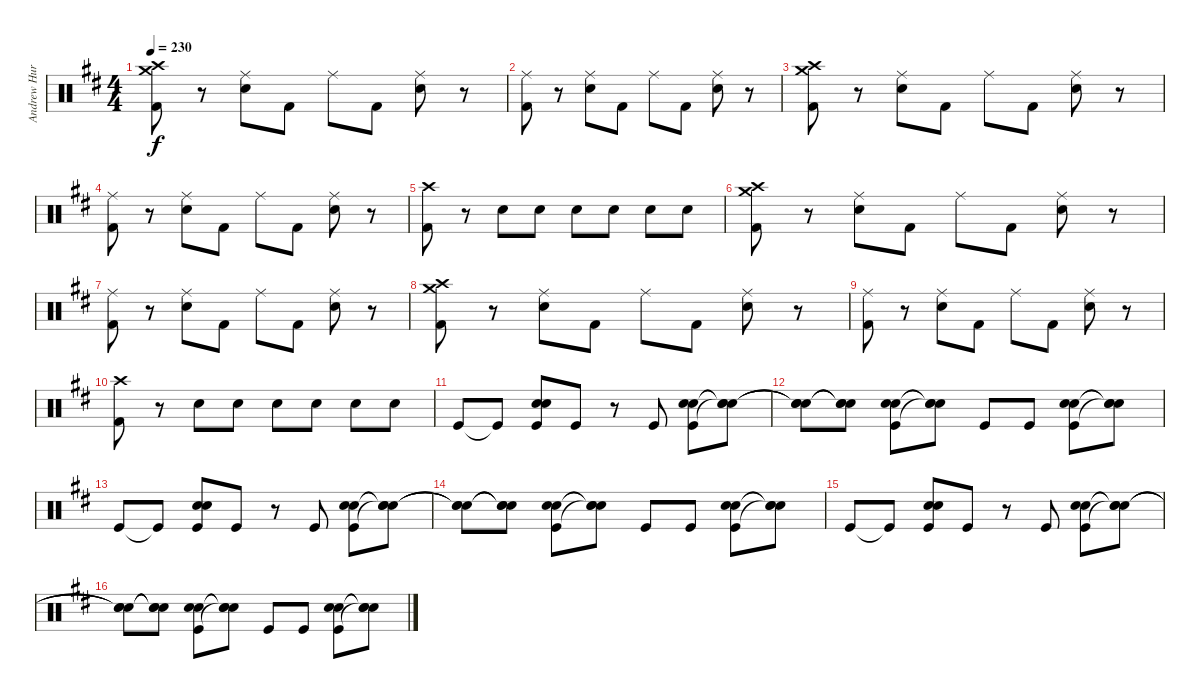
\track ("Andrew Hurley" "Andrew Hur") {instrument percussion}
\staff {score}
\articulation defaults
\ts (4 4)
\tempo 230
\clef neutral
\ks d
("Crash high (hit)" "Crash medium (hit)" "Kick (hit) 2").8{dy f} r.8 ("Ride (middle)" "Electric Snare (hit)").8 "Kick (hit) 2".8 "Ride (middle)".8 "Kick (hit) 2".8 ("Ride (middle)" "Electric Snare (hit)").8 r.8 |
("Ride (middle)" "Kick (hit) 2").8 r.8 ("Ride (middle)" "Electric Snare (hit)").8 "Kick (hit) 2".8 "Ride (middle)".8 "Kick (hit) 2".8 ("Ride (middle)" "Electric Snare (hit)").8 r.8 |
("Crash high (hit)" "Crash medium (hit)" "Kick (hit) 2").8 r.8 ("Ride (middle)" "Electric Snare (hit)").8 "Kick (hit) 2".8 "Ride (middle)".8 "Kick (hit) 2".8 ("Ride (middle)" "Electric Snare (hit)").8 r.8 |
("Ride (middle)" "Kick (hit) 2").8 r.8 ("Ride (middle)" "Electric Snare (hit)").8 "Kick (hit) 2".8 "Ride (middle)".8 "Kick (hit) 2".8 ("Ride (middle)" "Electric Snare (hit)").8 r.8 |
("Crash high (hit)" "Kick (hit) 2").8 r.8 "Electric Snare (hit)".8 "Electric Snare (hit)".8 "Electric Snare (hit)".8 "Electric Snare (hit)".8 "Electric Snare (hit)".8 "Electric Snare (hit)".8 |
("Crash high (hit)" "Crash medium (hit)" "Kick (hit) 2").8 r.8 ("Ride (middle)" "Electric Snare (hit)").8 "Kick (hit) 2".8 "Ride (middle)".8 "Kick (hit) 2".8 ("Ride (middle)" "Electric Snare (hit)").8 r.8 |
("Ride (middle)" "Kick (hit) 2").8 r.8 ("Ride (middle)" "Electric Snare (hit)").8 "Kick (hit) 2".8 "Ride (middle)".8 "Kick (hit) 2".8 ("Ride (middle)" "Electric Snare (hit)").8 r.8 |
("Crash high (hit)" "Crash medium (hit)" "Kick (hit) 2").8 r.8 ("Ride (middle)" "Electric Snare (hit)").8 "Kick (hit) 2".8 "Ride (middle)".8 "Kick (hit) 2".8 ("Ride (middle)" "Electric Snare (hit)").8 r.8 |
("Ride (middle)" "Kick (hit) 2").8 r.8 ("Ride (middle)" "Electric Snare (hit)").8 "Kick (hit) 2".8 "Ride (middle)".8 "Kick (hit) 2".8 ("Ride (middle)" "Electric Snare (hit)").8 r.8 |
("Crash high (hit)" "Kick (hit) 2").8 r.8 "Electric Snare (hit)".8 "Electric Snare (hit)".8 "Electric Snare (hit)".8 "Electric Snare (hit)".8 "Electric Snare (hit)".8 "Electric Snare (hit)".8 |
"Kick (hit)".8 "Kick (hit)"{t}.8 ("Kick (hit)" "Snare (hit) 2" "Electric Snare (hit)").8 "Kick (hit)".8 r.8 "Kick (hit)".8 ("Electric Snare (hit)" "Snare (hit) 2" "Kick (hit)").8 ("Snare (hit)"{t} "Snare (hit)"{t} "Snare (hit)"{t}).8 |
("Snare (hit)"{t} "Snare (hit)"{t} "Snare (hit)"{t}).8 ("Snare (hit)"{t} "Snare (hit)"{t} "Snare (hit)"{t}).8 ("Electric Snare (hit)" "Snare (hit) 2" "Kick (hit)").8 ("Snare (hit)"{t} "Snare (hit)"{t} "Snare (hit)"{t}).8 "Kick (hit)".8 "Kick (hit)".8 ("Electric Snare (hit)" "Snare (hit) 2" "Kick (hit)").8 ("Snare (hit)"{t} "Snare (hit)"{t} "Snare (hit)"{t}).8 |
"Kick (hit)".8 "Kick (hit)"{t}.8 ("Kick (hit)" "Snare (hit) 2" "Electric Snare (hit)").8 "Kick (hit)".8 r.8 "Kick (hit)".8 ("Electric Snare (hit)" "Snare (hit) 2" "Kick (hit)").8 ("Snare (hit)"{t} "Snare (hit)"{t} "Snare (hit)"{t}).8 |
("Snare (hit)"{t} "Snare (hit)"{t} "Snare (hit)"{t}).8 ("Snare (hit)"{t} "Snare (hit)"{t} "Snare (hit)"{t}).8 ("Electric Snare (hit)" "Snare (hit) 2" "Kick (hit)").8 ("Snare (hit)"{t} "Snare (hit)"{t} "Snare (hit)"{t}).8 "Kick (hit)".8 "Kick (hit)".8 ("Electric Snare (hit)" "Snare (hit) 2" "Kick (hit)").8 ("Snare (hit)"{t} "Snare (hit)"{t} "Snare (hit)"{t}).8 |
"Kick (hit)".8 "Kick (hit)"{t}.8 ("Kick (hit)" "Snare (hit) 2" "Electric Snare (hit)").8 "Kick (hit)".8 r.8 "Kick (hit)".8 ("Electric Snare (hit)" "Snare (hit) 2" "Kick (hit)").8 ("Snare (hit)"{t} "Snare (hit)"{t} "Snare (hit)"{t}).8 |
("Snare (hit)"{t} "Snare (hit)"{t} "Snare (hit)"{t}).8 ("Snare (hit)"{t} "Snare (hit)"{t} "Snare (hit)"{t}).8 ("Electric Snare (hit)" "Snare (hit) 2" "Kick (hit)").8 ("Snare (hit)"{t} "Snare (hit)"{t} "Snare (hit)"{t}).8 "Kick (hit)".8 "Kick (hit)".8 ("Electric Snare (hit)" "Snare (hit) 2" "Kick (hit)").8 ("Snare (hit)"{t} "Snare (hit)"{t} "Snare (hit)"{t}).8
